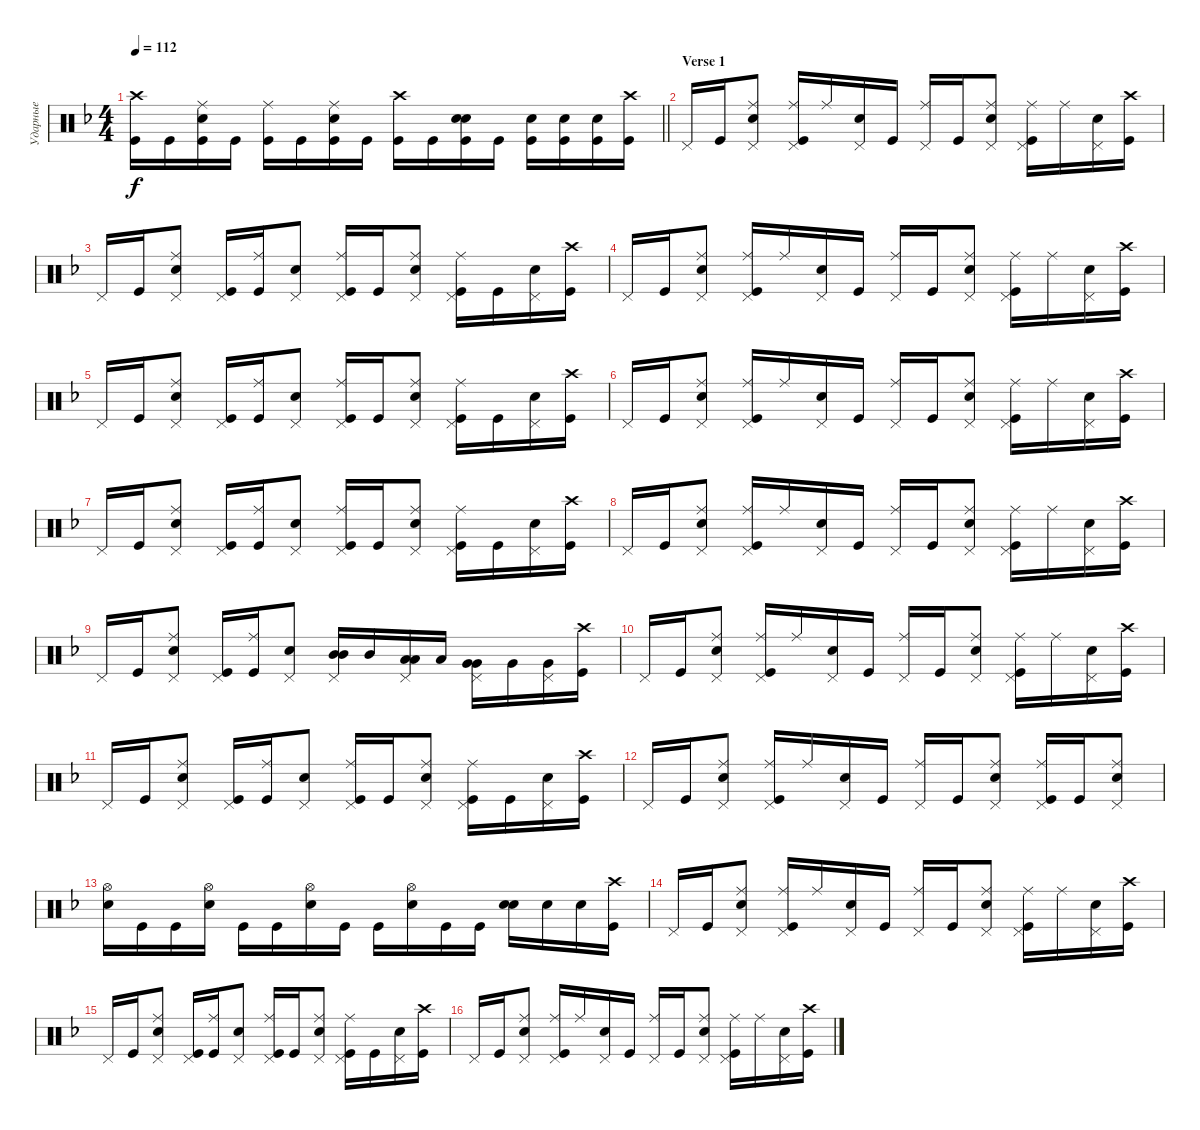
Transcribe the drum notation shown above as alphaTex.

\track ("Ударные" "Ударные") {instrument percussion}
\staff {score}
\articulation defaults
\ts (4 4)
\tempo 112
\clef neutral
\barLineRight lightlight
\ks dminor
("Kick (hit)" "Crash high (hit)").16{dy f} "Kick (hit)".16 ("Kick (hit)" "Snare (hit) 2" "Ride (middle)").16 "Kick (hit)".16 ("Kick (hit)" "Ride (middle)").16 "Kick (hit)".16 ("Kick (hit)" "Snare (hit) 2" "Ride (middle)").16 "Kick (hit)".16 ("Kick (hit)" "Crash high (hit)").16 "Kick (hit)".16 ("Kick (hit)" "Snare (hit) 2" "Snare (hit) 2").16{bd 240} "Kick (hit)".16 ("Kick (hit)" "Snare (hit) 2").16 ("Kick (hit)" "Snare (hit) 2").16 ("Kick (hit)" "Snare (hit) 2").16 ("Kick (hit)" "Crash high (hit)").16 |
\section ("" "Verse 1")
"Pedal Hi-Hat (hit)".16 "Kick (hit)".16 ("Snare (hit) 2" "Pedal Hi-Hat (hit)" "Ride (middle)").8 ("Kick (hit)" "Pedal Hi-Hat (hit)" "Ride (middle)").16 "Ride (middle)".16 ("Snare (hit) 2" "Pedal Hi-Hat (hit)").16 "Kick (hit)".16 ("Pedal Hi-Hat (hit)" "Ride (middle)").16 "Kick (hit)".16 ("Snare (hit) 2" "Pedal Hi-Hat (hit)" "Ride (middle)").8 ("Kick (hit)" "Pedal Hi-Hat (hit)" "Ride (middle)").16 "Ride (middle)".16 ("Snare (hit) 2" "Pedal Hi-Hat (hit)").16 ("Kick (hit)" "Crash high (hit)").16 |
"Pedal Hi-Hat (hit)".16 "Kick (hit)".16 ("Snare (hit) 2" "Pedal Hi-Hat (hit)" "Ride (middle)").8 ("Kick (hit)" "Pedal Hi-Hat (hit)").16 ("Ride (middle)" "Kick (hit)").16 ("Snare (hit) 2" "Pedal Hi-Hat (hit)").8 ("Pedal Hi-Hat (hit)" "Ride (middle)" "Kick (hit)").16 "Kick (hit)".16 ("Snare (hit) 2" "Pedal Hi-Hat (hit)" "Ride (middle)").8 ("Kick (hit)" "Pedal Hi-Hat (hit)" "Ride (middle)").16 "Kick (hit)".16 ("Snare (hit) 2" "Pedal Hi-Hat (hit)").16 ("Kick (hit)" "Crash high (hit)").16 |
"Pedal Hi-Hat (hit)".16 "Kick (hit)".16 ("Snare (hit) 2" "Pedal Hi-Hat (hit)" "Ride (middle)").8 ("Kick (hit)" "Pedal Hi-Hat (hit)" "Ride (middle)").16 "Ride (middle)".16 ("Snare (hit) 2" "Pedal Hi-Hat (hit)").16 "Kick (hit)".16 ("Pedal Hi-Hat (hit)" "Ride (middle)").16 "Kick (hit)".16 ("Snare (hit) 2" "Pedal Hi-Hat (hit)" "Ride (middle)").8 ("Kick (hit)" "Pedal Hi-Hat (hit)" "Ride (middle)").16 "Ride (middle)".16 ("Snare (hit) 2" "Pedal Hi-Hat (hit)").16 ("Kick (hit)" "Crash high (hit)").16 |
"Pedal Hi-Hat (hit)".16 "Kick (hit)".16 ("Snare (hit) 2" "Pedal Hi-Hat (hit)" "Ride (middle)").8 ("Kick (hit)" "Pedal Hi-Hat (hit)").16 ("Ride (middle)" "Kick (hit)").16 ("Snare (hit) 2" "Pedal Hi-Hat (hit)").8 ("Pedal Hi-Hat (hit)" "Ride (middle)" "Kick (hit)").16 "Kick (hit)".16 ("Snare (hit) 2" "Pedal Hi-Hat (hit)" "Ride (middle)").8 ("Kick (hit)" "Pedal Hi-Hat (hit)" "Ride (middle)").16 "Kick (hit)".16 ("Snare (hit) 2" "Pedal Hi-Hat (hit)").16 ("Kick (hit)" "Crash high (hit)").16 |
"Pedal Hi-Hat (hit)".16 "Kick (hit)".16 ("Snare (hit) 2" "Pedal Hi-Hat (hit)" "Ride (middle)").8 ("Kick (hit)" "Pedal Hi-Hat (hit)" "Ride (middle)").16 "Ride (middle)".16 ("Snare (hit) 2" "Pedal Hi-Hat (hit)").16 "Kick (hit)".16 ("Pedal Hi-Hat (hit)" "Ride (middle)").16 "Kick (hit)".16 ("Snare (hit) 2" "Pedal Hi-Hat (hit)" "Ride (middle)").8 ("Kick (hit)" "Pedal Hi-Hat (hit)" "Ride (middle)").16 "Ride (middle)".16 ("Snare (hit) 2" "Pedal Hi-Hat (hit)").16 ("Kick (hit)" "Crash high (hit)").16 |
"Pedal Hi-Hat (hit)".16 "Kick (hit)".16 ("Snare (hit) 2" "Pedal Hi-Hat (hit)" "Ride (middle)").8 ("Kick (hit)" "Pedal Hi-Hat (hit)").16 ("Ride (middle)" "Kick (hit)").16 ("Snare (hit) 2" "Pedal Hi-Hat (hit)").8 ("Pedal Hi-Hat (hit)" "Ride (middle)" "Kick (hit)").16 "Kick (hit)".16 ("Snare (hit) 2" "Pedal Hi-Hat (hit)" "Ride (middle)").8 ("Kick (hit)" "Pedal Hi-Hat (hit)" "Ride (middle)").16 "Kick (hit)".16 ("Snare (hit) 2" "Pedal Hi-Hat (hit)").16 ("Kick (hit)" "Crash high (hit)").16 |
"Pedal Hi-Hat (hit)".16 "Kick (hit)".16 ("Snare (hit) 2" "Pedal Hi-Hat (hit)" "Ride (middle)").8 ("Kick (hit)" "Pedal Hi-Hat (hit)" "Ride (middle)").16 "Ride (middle)".16 ("Snare (hit) 2" "Pedal Hi-Hat (hit)").16 "Kick (hit)".16 ("Pedal Hi-Hat (hit)" "Ride (middle)").16 "Kick (hit)".16 ("Snare (hit) 2" "Pedal Hi-Hat (hit)" "Ride (middle)").8 ("Kick (hit)" "Pedal Hi-Hat (hit)" "Ride (middle)").16 "Ride (middle)".16 ("Snare (hit) 2" "Pedal Hi-Hat (hit)").16 ("Kick (hit)" "Crash high (hit)").16 |
"Pedal Hi-Hat (hit)".16 "Kick (hit)".16 ("Snare (hit) 2" "Pedal Hi-Hat (hit)" "Ride (middle)").8 ("Kick (hit)" "Pedal Hi-Hat (hit)").16 ("Ride (middle)" "Kick (hit)").16 ("Snare (hit) 2" "Pedal Hi-Hat (hit)").8 ("Pedal Hi-Hat (hit)" "Mid Tom (hit)" "Mid Tom (hit)").16{bd 480} "Mid Tom (hit)".16 ("Low Tom (hit)" "Pedal Hi-Hat (hit)" "Low Tom (hit)").16{bd 240} "Low Tom (hit)".16 ("Very Low Tom (hit)" "Pedal Hi-Hat (hit)" "Very Low Tom (hit)").16{bd 240} "Very Low Tom (hit)".16 ("Pedal Hi-Hat (hit)" "Very Low Tom (hit)").16 ("Kick (hit)" "Crash high (hit)").16 |
"Pedal Hi-Hat (hit)".16 "Kick (hit)".16 ("Snare (hit) 2" "Pedal Hi-Hat (hit)" "Ride (middle)").8 ("Kick (hit)" "Pedal Hi-Hat (hit)" "Ride (middle)").16 "Ride (middle)".16 ("Snare (hit) 2" "Pedal Hi-Hat (hit)").16 "Kick (hit)".16 ("Pedal Hi-Hat (hit)" "Ride (middle)").16 "Kick (hit)".16 ("Snare (hit) 2" "Pedal Hi-Hat (hit)" "Ride (middle)").8 ("Kick (hit)" "Pedal Hi-Hat (hit)" "Ride (middle)").16 "Ride (middle)".16 ("Snare (hit) 2" "Pedal Hi-Hat (hit)").16 ("Kick (hit)" "Crash high (hit)").16 |
"Pedal Hi-Hat (hit)".16 "Kick (hit)".16 ("Snare (hit) 2" "Pedal Hi-Hat (hit)" "Ride (middle)").8 ("Kick (hit)" "Pedal Hi-Hat (hit)").16 ("Ride (middle)" "Kick (hit)").16 ("Snare (hit) 2" "Pedal Hi-Hat (hit)").8 ("Pedal Hi-Hat (hit)" "Ride (middle)" "Kick (hit)").16 "Kick (hit)".16 ("Snare (hit) 2" "Pedal Hi-Hat (hit)" "Ride (middle)").8 ("Kick (hit)" "Pedal Hi-Hat (hit)" "Ride (middle)").16 "Kick (hit)".16 ("Snare (hit) 2" "Pedal Hi-Hat (hit)").16 ("Kick (hit)" "Crash high (hit)").16 |
"Pedal Hi-Hat (hit)".16 "Kick (hit)".16 ("Snare (hit) 2" "Pedal Hi-Hat (hit)" "Ride (middle)").8 ("Kick (hit)" "Pedal Hi-Hat (hit)" "Ride (middle)").16 "Ride (middle)".16 ("Snare (hit) 2" "Pedal Hi-Hat (hit)").16 "Kick (hit)".16 ("Pedal Hi-Hat (hit)" "Ride (middle)").16 "Kick (hit)".16 ("Snare (hit) 2" "Pedal Hi-Hat (hit)" "Ride (middle)").8 ("Kick (hit)" "Pedal Hi-Hat (hit)" "Ride (middle)").16 "Kick (hit)".16 ("Snare (hit) 2" "Pedal Hi-Hat (hit)" "Ride (middle)").8 |
("Snare (hit) 2" "Hi-Hat (open)").16 "Kick (hit)".16 "Kick (hit)".16 ("Snare (hit) 2" "Hi-Hat (open)").16 "Kick (hit)".16 "Kick (hit)".16 ("Snare (hit) 2" "Hi-Hat (open)").16 "Kick (hit)".16 "Kick (hit)".16 ("Snare (hit) 2" "Hi-Hat (open)").16 "Kick (hit)".16 "Kick (hit)".16 ("Snare (hit) 2" "Snare (hit) 2").16{bd 240} "Snare (hit) 2".16 "Snare (hit) 2".16 ("Kick (hit)" "Crash high (hit)").16 |
"Pedal Hi-Hat (hit)".16 "Kick (hit)".16 ("Snare (hit) 2" "Pedal Hi-Hat (hit)" "Ride (middle)").8 ("Kick (hit)" "Pedal Hi-Hat (hit)" "Ride (middle)").16 "Ride (middle)".16 ("Snare (hit) 2" "Pedal Hi-Hat (hit)").16 "Kick (hit)".16 ("Pedal Hi-Hat (hit)" "Ride (middle)").16 "Kick (hit)".16 ("Snare (hit) 2" "Pedal Hi-Hat (hit)" "Ride (middle)").8 ("Kick (hit)" "Pedal Hi-Hat (hit)" "Ride (middle)").16 "Ride (middle)".16 ("Snare (hit) 2" "Pedal Hi-Hat (hit)").16 ("Kick (hit)" "Crash high (hit)").16 |
"Pedal Hi-Hat (hit)".16 "Kick (hit)".16 ("Snare (hit) 2" "Pedal Hi-Hat (hit)" "Ride (middle)").8 ("Kick (hit)" "Pedal Hi-Hat (hit)").16 ("Ride (middle)" "Kick (hit)").16 ("Snare (hit) 2" "Pedal Hi-Hat (hit)").8 ("Pedal Hi-Hat (hit)" "Ride (middle)" "Kick (hit)").16 "Kick (hit)".16 ("Snare (hit) 2" "Pedal Hi-Hat (hit)" "Ride (middle)").8 ("Kick (hit)" "Pedal Hi-Hat (hit)" "Ride (middle)").16 "Kick (hit)".16 ("Snare (hit) 2" "Pedal Hi-Hat (hit)").16 ("Kick (hit)" "Crash high (hit)").16 |
"Pedal Hi-Hat (hit)".16 "Kick (hit)".16 ("Snare (hit) 2" "Pedal Hi-Hat (hit)" "Ride (middle)").8 ("Kick (hit)" "Pedal Hi-Hat (hit)" "Ride (middle)").16 "Ride (middle)".16 ("Snare (hit) 2" "Pedal Hi-Hat (hit)").16 "Kick (hit)".16 ("Pedal Hi-Hat (hit)" "Ride (middle)").16 "Kick (hit)".16 ("Snare (hit) 2" "Pedal Hi-Hat (hit)" "Ride (middle)").8 ("Kick (hit)" "Pedal Hi-Hat (hit)" "Ride (middle)").16 "Ride (middle)".16 ("Snare (hit) 2" "Pedal Hi-Hat (hit)").16 ("Kick (hit)" "Crash high (hit)").16
